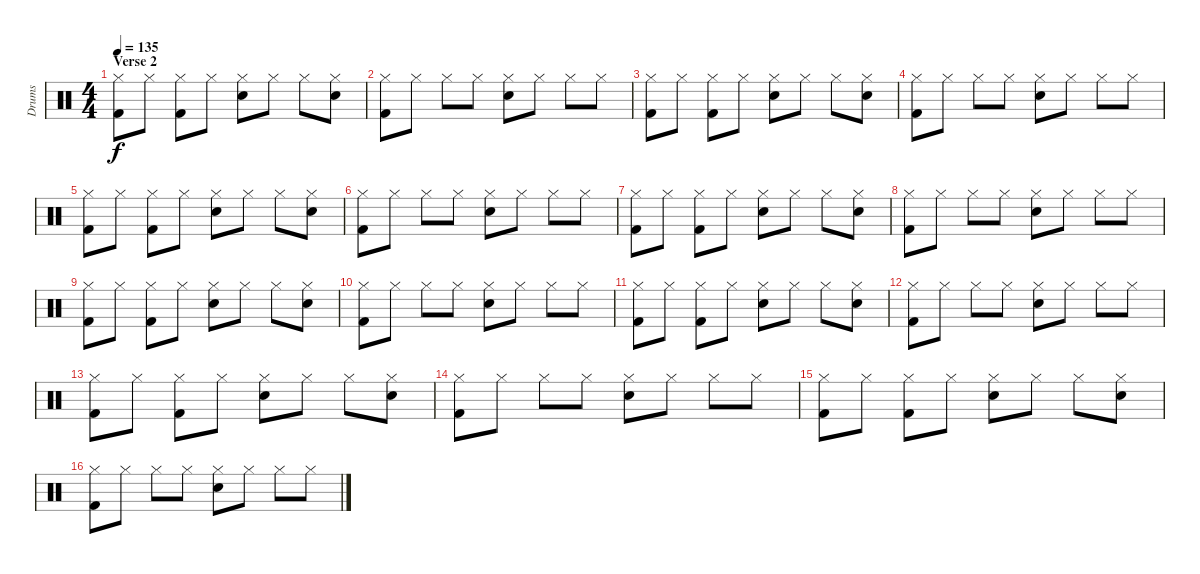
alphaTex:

\track ("Drums" "Drums") {instrument percussion}
\staff {score}
\articulation defaults
\ts (4 4)
\section ("" "Verse 2")
\tempo 135
\clef neutral
\ks c
("Kick (hit) 2" "Hi-Hat (closed)").8{dy f} "Hi-Hat (closed)".8 ("Kick (hit) 2" "Hi-Hat (closed)").8 "Hi-Hat (closed)".8 ("Snare (hit) 2" "Hi-Hat (closed)").8 "Hi-Hat (closed)".8 "Hi-Hat (closed)".8 ("Snare (hit) 2" "Hi-Hat (closed)").8 |
("Kick (hit) 2" "Hi-Hat (closed)").8 "Hi-Hat (closed)".8 "Hi-Hat (closed)".8 "Hi-Hat (closed)".8 ("Snare (hit) 2" "Hi-Hat (closed)").8 "Hi-Hat (closed)".8 "Hi-Hat (closed)".8 "Hi-Hat (closed)".8 |
("Kick (hit) 2" "Hi-Hat (closed)").8 "Hi-Hat (closed)".8 ("Kick (hit) 2" "Hi-Hat (closed)").8 "Hi-Hat (closed)".8 ("Snare (hit) 2" "Hi-Hat (closed)").8 "Hi-Hat (closed)".8 "Hi-Hat (closed)".8 ("Snare (hit) 2" "Hi-Hat (closed)").8 |
("Kick (hit) 2" "Hi-Hat (closed)").8 "Hi-Hat (closed)".8 "Hi-Hat (closed)".8 "Hi-Hat (closed)".8 ("Snare (hit) 2" "Hi-Hat (closed)").8 "Hi-Hat (closed)".8 "Hi-Hat (closed)".8 "Hi-Hat (closed)".8 |
("Kick (hit) 2" "Hi-Hat (closed)").8 "Hi-Hat (closed)".8 ("Kick (hit) 2" "Hi-Hat (closed)").8 "Hi-Hat (closed)".8 ("Snare (hit) 2" "Hi-Hat (closed)").8 "Hi-Hat (closed)".8 "Hi-Hat (closed)".8 ("Snare (hit) 2" "Hi-Hat (closed)").8 |
("Kick (hit) 2" "Hi-Hat (closed)").8 "Hi-Hat (closed)".8 "Hi-Hat (closed)".8 "Hi-Hat (closed)".8 ("Snare (hit) 2" "Hi-Hat (closed)").8 "Hi-Hat (closed)".8 "Hi-Hat (closed)".8 "Hi-Hat (closed)".8 |
("Kick (hit) 2" "Hi-Hat (closed)").8 "Hi-Hat (closed)".8 ("Kick (hit) 2" "Hi-Hat (closed)").8 "Hi-Hat (closed)".8 ("Snare (hit) 2" "Hi-Hat (closed)").8 "Hi-Hat (closed)".8 "Hi-Hat (closed)".8 ("Snare (hit) 2" "Hi-Hat (closed)").8 |
("Kick (hit) 2" "Hi-Hat (closed)").8 "Hi-Hat (closed)".8 "Hi-Hat (closed)".8 "Hi-Hat (closed)".8 ("Snare (hit) 2" "Hi-Hat (closed)").8 "Hi-Hat (closed)".8 "Hi-Hat (closed)".8 "Hi-Hat (closed)".8 |
("Kick (hit) 2" "Hi-Hat (closed)").8 "Hi-Hat (closed)".8 ("Kick (hit) 2" "Hi-Hat (closed)").8 "Hi-Hat (closed)".8 ("Snare (hit) 2" "Hi-Hat (closed)").8 "Hi-Hat (closed)".8 "Hi-Hat (closed)".8 ("Snare (hit) 2" "Hi-Hat (closed)").8 |
("Kick (hit) 2" "Hi-Hat (closed)").8 "Hi-Hat (closed)".8 "Hi-Hat (closed)".8 "Hi-Hat (closed)".8 ("Snare (hit) 2" "Hi-Hat (closed)").8 "Hi-Hat (closed)".8 "Hi-Hat (closed)".8 "Hi-Hat (closed)".8 |
("Kick (hit) 2" "Hi-Hat (closed)").8 "Hi-Hat (closed)".8 ("Kick (hit) 2" "Hi-Hat (closed)").8 "Hi-Hat (closed)".8 ("Snare (hit) 2" "Hi-Hat (closed)").8 "Hi-Hat (closed)".8 "Hi-Hat (closed)".8 ("Snare (hit) 2" "Hi-Hat (closed)").8 |
("Kick (hit) 2" "Hi-Hat (closed)").8 "Hi-Hat (closed)".8 "Hi-Hat (closed)".8 "Hi-Hat (closed)".8 ("Snare (hit) 2" "Hi-Hat (closed)").8 "Hi-Hat (closed)".8 "Hi-Hat (closed)".8 "Hi-Hat (closed)".8 |
("Kick (hit) 2" "Hi-Hat (closed)").8 "Hi-Hat (closed)".8 ("Kick (hit) 2" "Hi-Hat (closed)").8 "Hi-Hat (closed)".8 ("Snare (hit) 2" "Hi-Hat (closed)").8 "Hi-Hat (closed)".8 "Hi-Hat (closed)".8 ("Snare (hit) 2" "Hi-Hat (closed)").8 |
("Kick (hit) 2" "Hi-Hat (closed)").8 "Hi-Hat (closed)".8 "Hi-Hat (closed)".8 "Hi-Hat (closed)".8 ("Snare (hit) 2" "Hi-Hat (closed)").8 "Hi-Hat (closed)".8 "Hi-Hat (closed)".8 "Hi-Hat (closed)".8 |
("Kick (hit) 2" "Hi-Hat (closed)").8 "Hi-Hat (closed)".8 ("Kick (hit) 2" "Hi-Hat (closed)").8 "Hi-Hat (closed)".8 ("Snare (hit) 2" "Hi-Hat (closed)").8 "Hi-Hat (closed)".8 "Hi-Hat (closed)".8 ("Snare (hit) 2" "Hi-Hat (closed)").8 |
("Kick (hit) 2" "Hi-Hat (closed)").8 "Hi-Hat (closed)".8 "Hi-Hat (closed)".8 "Hi-Hat (closed)".8 ("Snare (hit) 2" "Hi-Hat (closed)").8 "Hi-Hat (closed)".8 "Hi-Hat (closed)".8 "Hi-Hat (closed)".8
